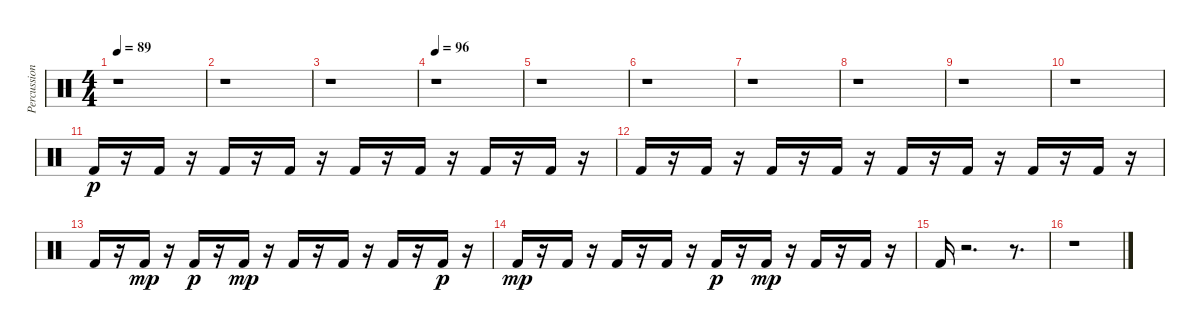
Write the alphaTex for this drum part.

\track ("Percussion" "Percussion") {instrument percussion}
\staff {score}
\articulation defaults
\ts (4 4)
\tempo 89
\clef neutral
\ks c
r.1{dy fff} |
r.1 |
r.1 |
\tempo 96
r.1 |
r.1 |
r.1 |
r.1 |
r.1 |
r.1 |
r.1 |
"Kick (hit) 2".16{dy p} r.16 "Kick (hit) 2".16 r.16 "Kick (hit) 2".16 r.16 "Kick (hit) 2".16 r.16 "Kick (hit) 2".16 r.16 "Kick (hit) 2".16 r.16 "Kick (hit) 2".16 r.16 "Kick (hit) 2".16 r.16 |
"Kick (hit) 2".16 r.16 "Kick (hit) 2".16 r.16 "Kick (hit) 2".16 r.16 "Kick (hit) 2".16 r.16 "Kick (hit) 2".16 r.16 "Kick (hit) 2".16 r.16 "Kick (hit) 2".16 r.16 "Kick (hit) 2".16 r.16 |
"Kick (hit) 2".16 r.16 "Kick (hit) 2".16{dy mp} r.16 "Kick (hit) 2".16{dy p} r.16 "Kick (hit) 2".16{dy mp} r.16 "Kick (hit) 2".16 r.16 "Kick (hit) 2".16 r.16 "Kick (hit) 2".16 r.16 "Kick (hit) 2".16{dy p} r.16 |
"Kick (hit) 2".16{dy mp} r.16 "Kick (hit) 2".16 r.16 "Kick (hit) 2".16 r.16 "Kick (hit) 2".16 r.16 "Kick (hit) 2".16{dy p} r.16 "Kick (hit) 2".16{dy mp} r.16 "Kick (hit) 2".16 r.16 "Kick (hit) 2".16 r.16 |
"Kick (hit) 2".16 r.2{d} r.8{d} |
r.1
